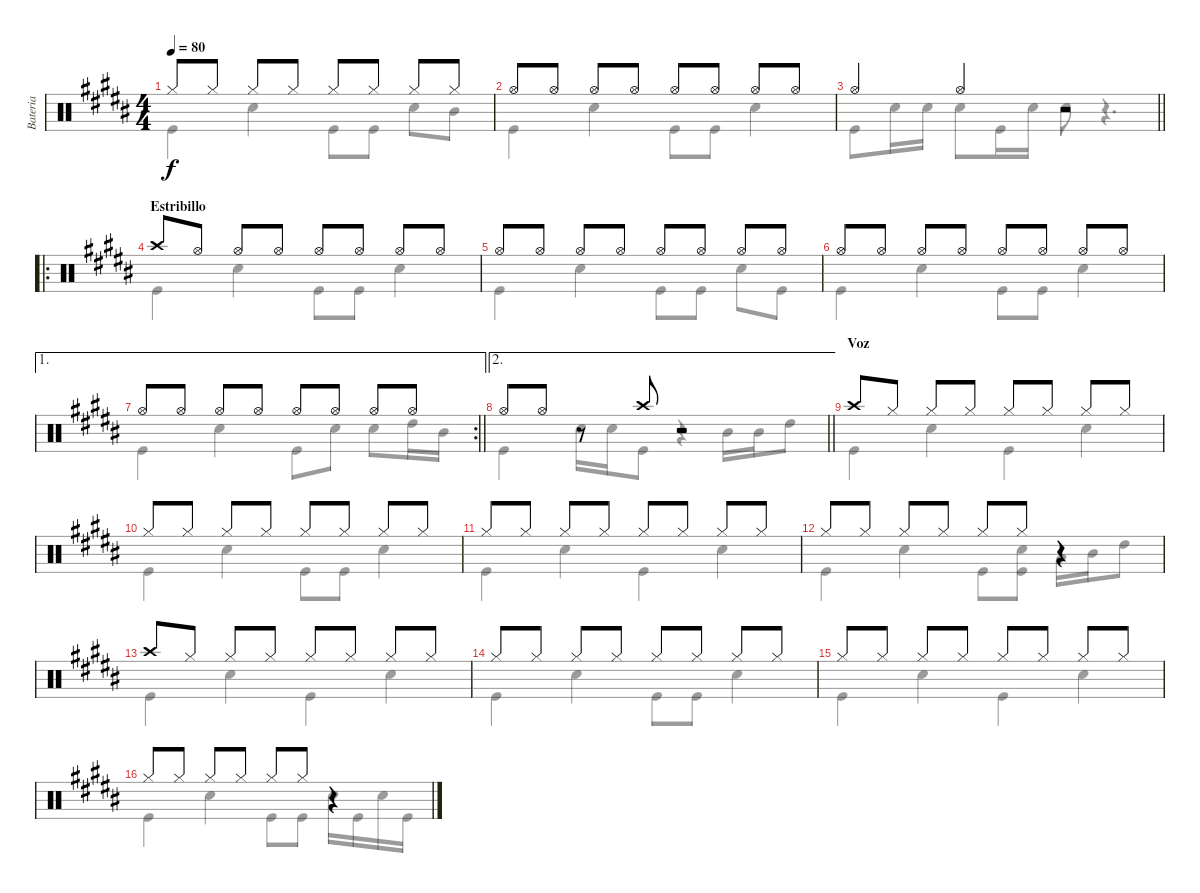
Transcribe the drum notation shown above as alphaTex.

\track ("Bateria" "Bateria") {instrument percussion}
\staff {score}
\articulation defaults
\voice
\ts (4 4)
\tempo 80
\clef neutral
\ks b "Hi-Hat (closed)".8{dy f} "Hi-Hat (closed)".8 "Hi-Hat (closed)".8 "Hi-Hat (closed)".8 "Hi-Hat (closed)".8 "Hi-Hat (closed)".8 "Hi-Hat (closed)".8 "Hi-Hat (closed)".8
|
"Hi-Hat (open)".8 "Hi-Hat (open)".8 "Hi-Hat (open)".8 "Hi-Hat (open)".8 "Hi-Hat (open)".8 "Hi-Hat (open)".8 "Hi-Hat (open)".8 "Hi-Hat (open)".8 |
\barLineRight lightlight "Hi-Hat (open)".4 "Hi-Hat (open)".4
r.2 |
\ro
\section ("" "Estribillo")
"Crash high (hit)".8 "Hi-Hat (open)".8 "Hi-Hat (open)".8 "Hi-Hat (open)".8 "Hi-Hat (open)".8 "Hi-Hat (open)".8 "Hi-Hat (open)".8 "Hi-Hat (open)".8 |
"Hi-Hat (open)".8 "Hi-Hat (open)".8 "Hi-Hat (open)".8 "Hi-Hat (open)".8 "Hi-Hat (open)".8 "Hi-Hat (open)".8 "Hi-Hat (open)".8 "Hi-Hat (open)".8 |
"Hi-Hat (open)".8 "Hi-Hat (open)".8 "Hi-Hat (open)".8 "Hi-Hat (open)".8 "Hi-Hat (open)".8 "Hi-Hat (open)".8 "Hi-Hat (open)".8 "Hi-Hat (open)".8 |
\ae 1
\rc 2
\barLineRight lightlight "Hi-Hat (open)".8 "Hi-Hat (open)".8 "Hi-Hat (open)".8 "Hi-Hat (open)".8 "Hi-Hat (open)".8 "Hi-Hat (open)".8 "Hi-Hat (open)".8 "Hi-Hat (open)".8
|
\ae 2
\barLineRight lightlight "Hi-Hat (open)".8 "Hi-Hat (open)".8
r.8 "Crash high (hit)".8 r.2 |
\section ("" "Voz")
"Crash high (hit)".8 "Hi-Hat (closed)".8 "Hi-Hat (closed)".8 "Hi-Hat (closed)".8 "Hi-Hat (closed)".8 "Hi-Hat (closed)".8 "Hi-Hat (closed)".8 "Hi-Hat (closed)".8 |
"Hi-Hat (closed)".8 "Hi-Hat (closed)".8 "Hi-Hat (closed)".8 "Hi-Hat (closed)".8 "Hi-Hat (closed)".8 "Hi-Hat (closed)".8 "Hi-Hat (closed)".8 "Hi-Hat (closed)".8 |
"Hi-Hat (closed)".8 "Hi-Hat (closed)".8 "Hi-Hat (closed)".8 "Hi-Hat (closed)".8 "Hi-Hat (closed)".8 "Hi-Hat (closed)".8 "Hi-Hat (closed)".8 "Hi-Hat (closed)".8 |
"Hi-Hat (closed)".8 "Hi-Hat (closed)".8 "Hi-Hat (closed)".8 "Hi-Hat (closed)".8 "Hi-Hat (closed)".8 "Hi-Hat (closed)".8 r.4 |
"Crash high (hit)".8 "Hi-Hat (closed)".8 "Hi-Hat (closed)".8 "Hi-Hat (closed)".8 "Hi-Hat (closed)".8 "Hi-Hat (closed)".8 "Hi-Hat (closed)".8 "Hi-Hat (closed)".8 |
"Hi-Hat (closed)".8 "Hi-Hat (closed)".8 "Hi-Hat (closed)".8 "Hi-Hat (closed)".8 "Hi-Hat (closed)".8 "Hi-Hat (closed)".8 "Hi-Hat (closed)".8 "Hi-Hat (closed)".8 |
"Hi-Hat (closed)".8 "Hi-Hat (closed)".8 "Hi-Hat (closed)".8 "Hi-Hat (closed)".8 "Hi-Hat (closed)".8 "Hi-Hat (closed)".8 "Hi-Hat (closed)".8 "Hi-Hat (closed)".8 |
"Hi-Hat (closed)".8 "Hi-Hat (closed)".8 "Hi-Hat (closed)".8 "Hi-Hat (closed)".8 "Hi-Hat (closed)".8 "Hi-Hat (closed)".8 r.4
\voice
\clef neutral
\ottava regular
\simile none
\ks b "Kick (hit)".4{dy f} "Snare (hit) 2".4 "Kick (hit)".8 "Kick (hit)".8 "Snare (hit) 2".8 "Mid Tom (hit)".8
|
"Kick (hit)".4 "Snare (hit) 2".4 "Kick (hit)".8 "Kick (hit)".8 "Snare (hit) 2".4 |
\barLineRight lightlight "Kick (hit)".8 "Snare (hit) 2".16 "Snare (hit) 2".16 "Snare (hit) 2".8 "Kick (hit)".16 "Snare (hit) 2".16 "Snare (hit) 2".8
r.4{d} |
"Kick (hit)".4 "Snare (hit) 2".4 "Kick (hit)".8 "Kick (hit)".8 "Snare (hit) 2".4 |
"Kick (hit)".4 "Snare (hit) 2".4 "Kick (hit)".8 "Kick (hit)".8 "Snare (hit) 2".8 "Kick (hit)".8 |
"Kick (hit)".4 "Snare (hit) 2".4 "Kick (hit)".8 "Kick (hit)".8 "Snare (hit) 2".4 |
\barLineRight lightlight "Kick (hit)".4 "Snare (hit) 2".4 "Kick (hit)".8 "Snare (hit) 2".8 "Snare (hit) 2".8 "High Tom (hit)".16 "Mid Tom (hit)".16
|
\barLineRight lightlight "Kick (hit)".4 "Snare (hit) 2".16 "Snare (hit) 2".16 "Kick (hit)".8
r.4 "Mid Tom (hit)".16 "Mid Tom (hit)".16 "High Tom (hit)".8 |
"Kick (hit)".4 "Snare (hit) 2".4 "Kick (hit)".4 "Snare (hit) 2".4 |
"Kick (hit)".4 "Snare (hit) 2".4 "Kick (hit)".8 "Kick (hit)".8 "Snare (hit) 2".4 |
"Kick (hit)".4 "Snare (hit) 2".4 "Kick (hit)".4 "Snare (hit) 2".4 |
"Kick (hit)".4 "Snare (hit) 2".4 "Kick (hit)".8 ("Snare (hit) 2" "Kick (hit)").8 "Low Tom (hit)".16 "Mid Tom (hit)".16 "High Tom (hit)".8 |
"Kick (hit)".4 "Snare (hit) 2".4 "Kick (hit)".4 "Snare (hit) 2".4 |
"Kick (hit)".4 "Snare (hit) 2".4 "Kick (hit)".8 "Kick (hit)".8 "Snare (hit) 2".4 |
"Kick (hit)".4 "Snare (hit) 2".4 "Kick (hit)".4 "Snare (hit) 2".4 |
"Kick (hit)".4 "Snare (hit) 2".4 "Kick (hit)".8 "Kick (hit)".8 "Snare (hit) 2".16 "Kick (hit)".16 "Snare (hit) 2".16 "Kick (hit)".16
